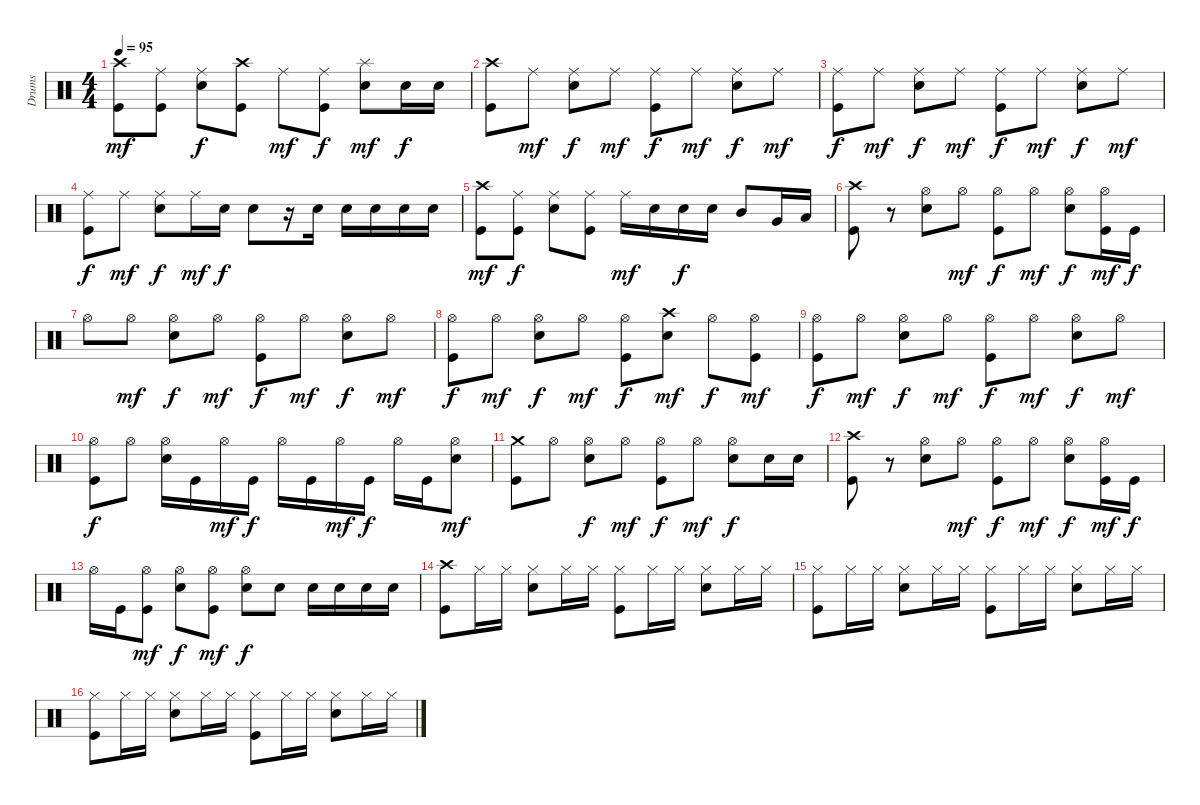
\track ("Drums" "Drums") {instrument percussion}
\staff {score}
\articulation defaults
\ts (4 4)
\tempo 95
\clef neutral
\ks c
("Crash high (hit)" "Kick (hit)").8{dy mf} ("Ride (middle)" "Kick (hit)").8 ("Ride (middle)" "Snare (hit) 2").8{dy f} ("Crash high (hit)" "Kick (hit)").8 "Ride (middle)".8{dy mf} ("Ride (middle)" "Kick (hit)").8{dy f} ("Splash (hit)" "Snare (hit) 2").8{dy mf} "Snare (hit) 2".16{dy f} "Snare (hit) 2".16 |
("Crash high (hit)" "Kick (hit)").8 "Ride (middle)".8{dy mf} ("Ride (middle)" "Snare (hit) 2").8{dy f} "Ride (middle)".8{dy mf} ("Ride (middle)" "Kick (hit)").8{dy f} "Ride (middle)".8{dy mf} ("Ride (middle)" "Snare (hit) 2").8{dy f} "Ride (middle)".8{dy mf} |
("Ride (middle)" "Kick (hit)").8{dy f} "Ride (middle)".8{dy mf} ("Ride (middle)" "Snare (hit) 2").8{dy f} "Ride (middle)".8{dy mf} ("Ride (middle)" "Kick (hit)").8{dy f} "Ride (middle)".8{dy mf} ("Ride (middle)" "Snare (hit) 2").8{dy f} "Ride (middle)".8{dy mf} |
("Ride (middle)" "Kick (hit)").8{dy f} "Ride (middle)".8{dy mf} ("Ride (middle)" "Snare (hit) 2").8{dy f} "Ride (middle)".16{dy mf} "Snare (hit) 2".16{dy f} "Snare (hit) 2".8 r.16 "Snare (hit) 2".16 "Snare (hit) 2".16 "Snare (hit) 2".16 "Snare (hit) 2".16 "Snare (hit) 2".16 |
("Crash high (hit)" "Kick (hit)").8{dy mf} ("Ride (middle)" "Kick (hit)").8{dy f} ("Ride (middle)" "Snare (hit) 2").8 ("Ride (middle)" "Kick (hit)").8 "Ride (middle)".16{dy mf} "Snare (hit) 2".16 "Snare (hit) 2".16{dy f} "Snare (hit) 2".16 "Mid Tom (hit)".8 "Very Low Tom (hit)".16 "Low Floor Tom (hit)".16 |
("Crash high (hit)" "Kick (hit)").8 r.8 ("Hi-Hat (open)" "Snare (hit) 2").8 "Hi-Hat (open)".8{dy mf} ("Hi-Hat (open)" "Kick (hit)").8{dy f} "Hi-Hat (open)".8{dy mf} ("Hi-Hat (open)" "Snare (hit) 2").8{dy f} ("Hi-Hat (open)" "Kick (hit)").16{dy mf} "Kick (hit)".16{dy f} |
"Hi-Hat (open)".8 "Hi-Hat (open)".8{dy mf} ("Hi-Hat (open)" "Snare (hit) 2").8{dy f} "Hi-Hat (open)".8{dy mf} ("Hi-Hat (open)" "Kick (hit)").8{dy f} "Hi-Hat (open)".8{dy mf} ("Hi-Hat (open)" "Snare (hit) 2").8{dy f} "Hi-Hat (open)".8{dy mf} |
("Hi-Hat (open)" "Kick (hit)").8{dy f} "Hi-Hat (open)".8{dy mf} ("Hi-Hat (open)" "Snare (hit) 2").8{dy f} "Hi-Hat (open)".8{dy mf} ("Hi-Hat (open)" "Kick (hit)").8{dy f} ("Crash high (hit)" "Snare (hit) 2").8{dy mf} "Hi-Hat (open)".8{dy f} ("Hi-Hat (open)" "Kick (hit)").8{dy mf} |
("Hi-Hat (open)" "Kick (hit)").8{dy f} "Hi-Hat (open)".8{dy mf} ("Hi-Hat (open)" "Snare (hit) 2").8{dy f} "Hi-Hat (open)".8{dy mf} ("Hi-Hat (open)" "Kick (hit)").8{dy f} "Hi-Hat (open)".8{dy mf} ("Hi-Hat (open)" "Snare (hit) 2").8{dy f} "Hi-Hat (open)".8{dy mf} |
("Hi-Hat (open)" "Kick (hit)").8{dy f} "Hi-Hat (open)".8 ("Hi-Hat (open)" "Snare (hit) 2").16 "Kick (hit)".16 "Hi-Hat (open)".16{dy mf} "Kick (hit)".16{dy f} "Hi-Hat (open)".16 "Kick (hit)".16 "Hi-Hat (open)".16{dy mf} "Kick (hit)".16{dy f} "Hi-Hat (open)".16 "Kick (hit)".16 ("Hi-Hat (open)" "Snare (hit) 2").8{dy mf} |
("Crash medium (hit)" "Kick (hit)").8 "Hi-Hat (open)".8 ("Hi-Hat (open)" "Snare (hit) 2").8{dy f} "Hi-Hat (open)".8{dy mf} ("Hi-Hat (open)" "Kick (hit)").8{dy f} "Hi-Hat (open)".8{dy mf} ("Hi-Hat (open)" "Snare (hit) 2").8{dy f} "Snare (hit) 2".16 "Snare (hit) 2".16 |
("Crash high (hit)" "Kick (hit)").8 r.8 ("Hi-Hat (open)" "Snare (hit) 2").8 "Hi-Hat (open)".8{dy mf} ("Hi-Hat (open)" "Kick (hit)").8{dy f} "Hi-Hat (open)".8{dy mf} ("Hi-Hat (open)" "Snare (hit) 2").8{dy f} ("Hi-Hat (open)" "Kick (hit)").16{dy mf} "Kick (hit)".16{dy f} |
"Hi-Hat (open)".16 "Kick (hit)".16 ("Hi-Hat (open)" "Kick (hit)").8{dy mf} ("Hi-Hat (open)" "Snare (hit) 2").8{dy f} ("Hi-Hat (open)" "Kick (hit)").8{dy mf} ("Hi-Hat (open)" "Snare (hit) 2").8{dy f} "Snare (hit) 2".8 "Snare (hit) 2".16 "Snare (hit) 2".16 "Snare (hit) 2".16 "Snare (hit) 2".16 |
("Crash high (hit)" "Kick (hit)").8 "Hi-Hat (closed)".16 "Hi-Hat (closed)".16 ("Hi-Hat (closed)" "Snare (hit) 2").8 "Hi-Hat (closed)".16 "Hi-Hat (closed)".16 ("Hi-Hat (closed)" "Kick (hit)").8 "Hi-Hat (closed)".16 "Hi-Hat (closed)".16 ("Hi-Hat (closed)" "Snare (hit) 2").8 "Hi-Hat (closed)".16 "Hi-Hat (closed)".16 |
("Hi-Hat (closed)" "Kick (hit)").8 "Hi-Hat (closed)".16 "Hi-Hat (closed)".16 ("Hi-Hat (closed)" "Snare (hit) 2").8 "Hi-Hat (closed)".16 "Hi-Hat (closed)".16 ("Hi-Hat (closed)" "Kick (hit)").8 "Hi-Hat (closed)".16 "Hi-Hat (closed)".16 ("Hi-Hat (closed)" "Snare (hit) 2").8 "Hi-Hat (closed)".16 "Hi-Hat (closed)".16 |
("Hi-Hat (closed)" "Kick (hit)").8 "Hi-Hat (closed)".16 "Hi-Hat (closed)".16 ("Hi-Hat (closed)" "Snare (hit) 2").8 "Hi-Hat (closed)".16 "Hi-Hat (closed)".16 ("Hi-Hat (closed)" "Kick (hit)").8 "Hi-Hat (closed)".16 "Hi-Hat (closed)".16 ("Hi-Hat (closed)" "Snare (hit) 2").8 "Hi-Hat (closed)".16 "Hi-Hat (closed)".16
